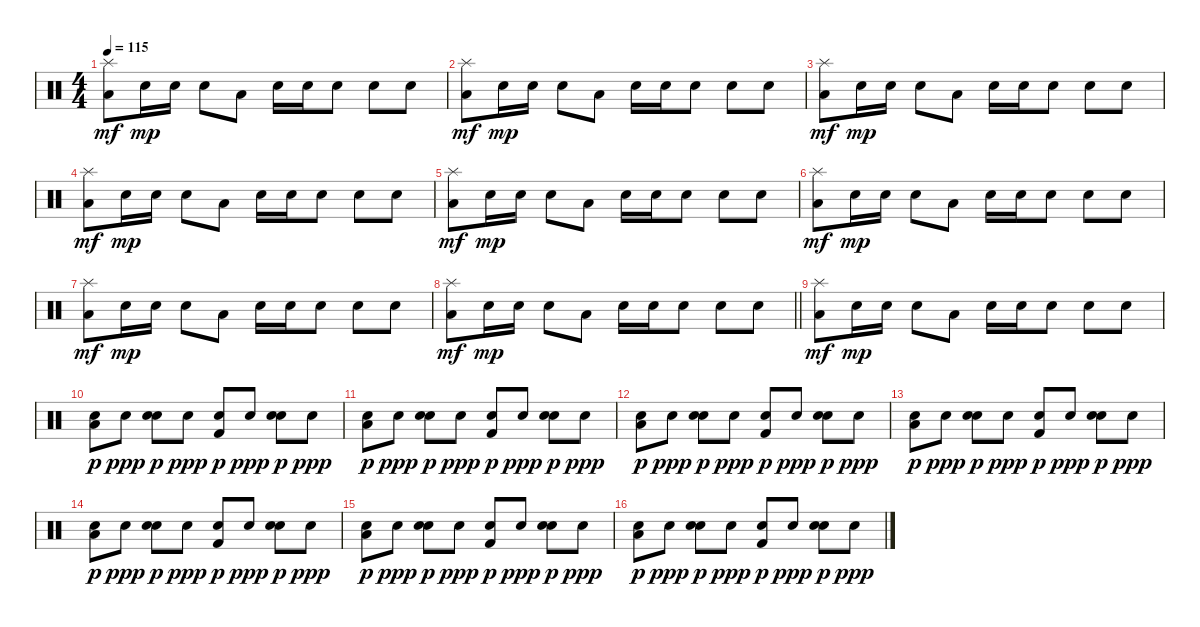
\track "" {instrument percussion}
\staff {score}
\articulation defaults
\ts (4 4)
\tempo 115
\clef neutral
\ks c
("Low Floor Tom (hit)" "Splash (hit)").8{dy mf} "Snare (hit) 2".16{dy mp} "Electric Snare (hit)".16 "Hand Clap (hit)".8 "Low Floor Tom (hit)".8 "Snare (hit) 2".16 "Electric Snare (hit)".16 "Hand Clap (hit)".8 "Electric Snare (hit)".8 "Electric Snare (hit)".8 |
("Low Floor Tom (hit)" "Splash (hit)").8{dy mf} "Snare (hit) 2".16{dy mp} "Electric Snare (hit)".16 "Hand Clap (hit)".8 "Low Floor Tom (hit)".8 "Snare (hit) 2".16 "Electric Snare (hit)".16 "Hand Clap (hit)".8 "Electric Snare (hit)".8 "Electric Snare (hit)".8 |
("Low Floor Tom (hit)" "Splash (hit)").8{dy mf} "Snare (hit) 2".16{dy mp} "Electric Snare (hit)".16 "Hand Clap (hit)".8 "Low Floor Tom (hit)".8 "Snare (hit) 2".16 "Electric Snare (hit)".16 "Hand Clap (hit)".8 "Electric Snare (hit)".8 "Electric Snare (hit)".8 |
("Low Floor Tom (hit)" "Splash (hit)").8{dy mf} "Snare (hit) 2".16{dy mp} "Electric Snare (hit)".16 "Hand Clap (hit)".8 "Low Floor Tom (hit)".8 "Snare (hit) 2".16 "Electric Snare (hit)".16 "Hand Clap (hit)".8 "Electric Snare (hit)".8 "Electric Snare (hit)".8 |
("Low Floor Tom (hit)" "Splash (hit)").8{dy mf} "Snare (hit) 2".16{dy mp} "Electric Snare (hit)".16 "Hand Clap (hit)".8 "Low Floor Tom (hit)".8 "Snare (hit) 2".16 "Electric Snare (hit)".16 "Hand Clap (hit)".8 "Electric Snare (hit)".8 "Electric Snare (hit)".8 |
("Low Floor Tom (hit)" "Splash (hit)").8{dy mf} "Snare (hit) 2".16{dy mp} "Electric Snare (hit)".16 "Hand Clap (hit)".8 "Low Floor Tom (hit)".8 "Snare (hit) 2".16 "Electric Snare (hit)".16 "Hand Clap (hit)".8 "Electric Snare (hit)".8 "Electric Snare (hit)".8 |
("Low Floor Tom (hit)" "Splash (hit)").8{dy mf} "Snare (hit) 2".16{dy mp} "Electric Snare (hit)".16 "Hand Clap (hit)".8 "Low Floor Tom (hit)".8 "Snare (hit) 2".16 "Electric Snare (hit)".16 "Hand Clap (hit)".8 "Electric Snare (hit)".8 "Electric Snare (hit)".8 |
\barLineRight lightlight
("Low Floor Tom (hit)" "Splash (hit)").8{dy mf} "Snare (hit) 2".16{dy mp} "Electric Snare (hit)".16 "Hand Clap (hit)".8 "Low Floor Tom (hit)".8 "Snare (hit) 2".16 "Electric Snare (hit)".16 "Hand Clap (hit)".8 "Electric Snare (hit)".8 "Electric Snare (hit)".8 |
\section ("" "")
("Low Floor Tom (hit)" "Splash (hit)").8{dy mf} "Snare (hit) 2".16{dy mp} "Electric Snare (hit)".16 "Hand Clap (hit)".8 "Low Floor Tom (hit)".8 "Snare (hit) 2".16 "Electric Snare (hit)".16 "Hand Clap (hit)".8 "Electric Snare (hit)".8 "Electric Snare (hit)".8 |
("Snare (hit) 2" "Low Floor Tom (hit)").8{dy p} "Electric Snare (hit)".8{dy ppp} ("Hand Clap (hit)" "Snare (hit) 2").8{dy p} "Snare (hit) 2".8{dy ppp} ("Kick (hit) 2" "Snare (hit) 2").8{dy p} "Snare (hit) 2".8{dy ppp} ("Snare (hit) 2" "Hand Clap (hit)").8{dy p} "Snare (hit) 2".8{dy ppp} |
("Snare (hit) 2" "Low Floor Tom (hit)").8{dy p} "Electric Snare (hit)".8{dy ppp} ("Hand Clap (hit)" "Snare (hit) 2").8{dy p} "Snare (hit) 2".8{dy ppp} ("Kick (hit) 2" "Snare (hit) 2").8{dy p} "Snare (hit) 2".8{dy ppp} ("Snare (hit) 2" "Hand Clap (hit)").8{dy p} "Snare (hit) 2".8{dy ppp} |
("Snare (hit) 2" "Low Floor Tom (hit)").8{dy p} "Electric Snare (hit)".8{dy ppp} ("Hand Clap (hit)" "Snare (hit) 2").8{dy p} "Snare (hit) 2".8{dy ppp} ("Kick (hit) 2" "Snare (hit) 2").8{dy p} "Snare (hit) 2".8{dy ppp} ("Snare (hit) 2" "Hand Clap (hit)").8{dy p} "Snare (hit) 2".8{dy ppp} |
("Snare (hit) 2" "Low Floor Tom (hit)").8{dy p} "Electric Snare (hit)".8{dy ppp} ("Hand Clap (hit)" "Snare (hit) 2").8{dy p} "Snare (hit) 2".8{dy ppp} ("Kick (hit) 2" "Snare (hit) 2").8{dy p} "Snare (hit) 2".8{dy ppp} ("Snare (hit) 2" "Hand Clap (hit)").8{dy p} "Snare (hit) 2".8{dy ppp} |
("Snare (hit) 2" "Low Floor Tom (hit)").8{dy p} "Electric Snare (hit)".8{dy ppp} ("Hand Clap (hit)" "Snare (hit) 2").8{dy p} "Snare (hit) 2".8{dy ppp} ("Kick (hit) 2" "Snare (hit) 2").8{dy p} "Snare (hit) 2".8{dy ppp} ("Snare (hit) 2" "Hand Clap (hit)").8{dy p} "Snare (hit) 2".8{dy ppp} |
("Snare (hit) 2" "Low Floor Tom (hit)").8{dy p} "Electric Snare (hit)".8{dy ppp} ("Hand Clap (hit)" "Snare (hit) 2").8{dy p} "Snare (hit) 2".8{dy ppp} ("Kick (hit) 2" "Snare (hit) 2").8{dy p} "Snare (hit) 2".8{dy ppp} ("Snare (hit) 2" "Hand Clap (hit)").8{dy p} "Snare (hit) 2".8{dy ppp} |
("Snare (hit) 2" "Low Floor Tom (hit)").8{dy p} "Electric Snare (hit)".8{dy ppp} ("Hand Clap (hit)" "Snare (hit) 2").8{dy p} "Snare (hit) 2".8{dy ppp} ("Kick (hit) 2" "Snare (hit) 2").8{dy p} "Snare (hit) 2".8{dy ppp} ("Snare (hit) 2" "Hand Clap (hit)").8{dy p} "Snare (hit) 2".8{dy ppp}
